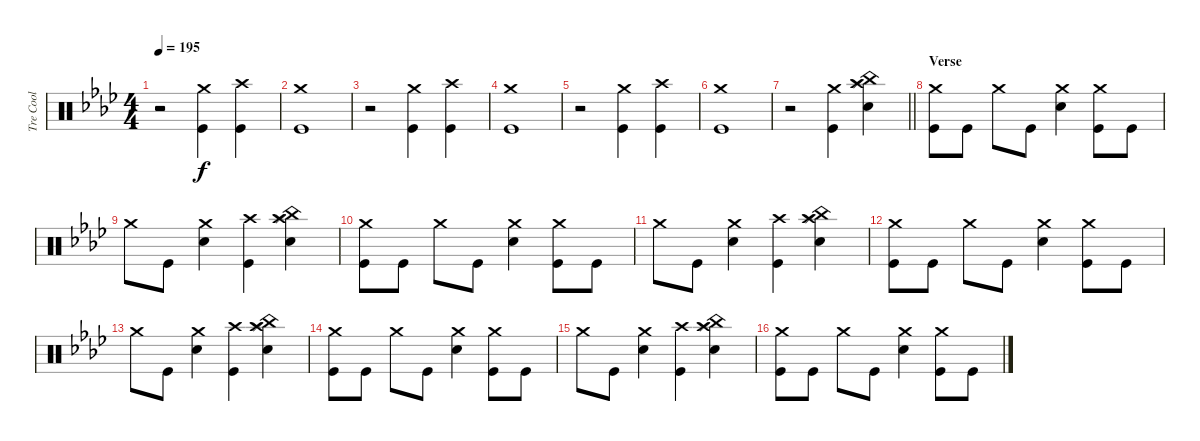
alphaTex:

\track ("Tre Cool" "Tre Cool") {instrument percussion}
\staff {score}
\articulation defaults
\ts (4 4)
\tempo 195
\clef neutral
\ks ab
r.2{dy f} ("Crash medium (hit)" "Kick (hit)").4 ("Crash high (hit)" "Kick (hit)").4 |
("Crash medium (hit)" "Kick (hit)").1 |
r.2 ("Crash medium (hit)" "Kick (hit)").4 ("Crash high (hit)" "Kick (hit)").4 |
("Crash medium (hit)" "Kick (hit)").1 |
r.2 ("Crash medium (hit)" "Kick (hit)").4 ("Crash high (hit)" "Kick (hit)").4 |
("Crash medium (hit)" "Kick (hit)").1 |
\barLineRight lightlight
r.2 ("Crash medium (hit)" "Kick (hit)").4 ("China (hit)" "Splash (hit)" "Electric Snare (hit)" "Crash high (hit)").4 |
\section ("" "Verse")
("Crash medium (hit)" "Kick (hit)").8 "Kick (hit)".8 "Crash medium (hit)".8 "Kick (hit)".8 ("Crash medium (hit)" "Electric Snare (hit)").4 ("Crash medium (hit)" "Kick (hit)").8 "Kick (hit)".8 |
"Crash medium (hit)".8 "Kick (hit)".8 ("Crash medium (hit)" "Electric Snare (hit)").4 ("Crash high (hit)" "Kick (hit)").4 ("China (hit)" "Splash (hit)" "Electric Snare (hit)" "Crash high (hit)").4 |
("Crash medium (hit)" "Kick (hit)").8 "Kick (hit)".8 "Crash medium (hit)".8 "Kick (hit)".8 ("Crash medium (hit)" "Electric Snare (hit)").4 ("Crash medium (hit)" "Kick (hit)").8 "Kick (hit)".8 |
"Crash medium (hit)".8 "Kick (hit)".8 ("Crash medium (hit)" "Electric Snare (hit)").4 ("Crash high (hit)" "Kick (hit)").4 ("China (hit)" "Splash (hit)" "Electric Snare (hit)" "Crash high (hit)").4 |
("Crash medium (hit)" "Kick (hit)").8 "Kick (hit)".8 "Crash medium (hit)".8 "Kick (hit)".8 ("Crash medium (hit)" "Electric Snare (hit)").4 ("Crash medium (hit)" "Kick (hit)").8 "Kick (hit)".8 |
"Crash medium (hit)".8 "Kick (hit)".8 ("Crash medium (hit)" "Electric Snare (hit)").4 ("Crash high (hit)" "Kick (hit)").4 ("China (hit)" "Splash (hit)" "Electric Snare (hit)" "Crash high (hit)").4 |
("Crash medium (hit)" "Kick (hit)").8 "Kick (hit)".8 "Crash medium (hit)".8 "Kick (hit)".8 ("Crash medium (hit)" "Electric Snare (hit)").4 ("Crash medium (hit)" "Kick (hit)").8 "Kick (hit)".8 |
"Crash medium (hit)".8 "Kick (hit)".8 ("Crash medium (hit)" "Electric Snare (hit)").4 ("Crash high (hit)" "Kick (hit)").4 ("China (hit)" "Splash (hit)" "Electric Snare (hit)" "Crash high (hit)").4 |
("Crash medium (hit)" "Kick (hit)").8 "Kick (hit)".8 "Crash medium (hit)".8 "Kick (hit)".8 ("Crash medium (hit)" "Electric Snare (hit)").4 ("Crash medium (hit)" "Kick (hit)").8 "Kick (hit)".8
